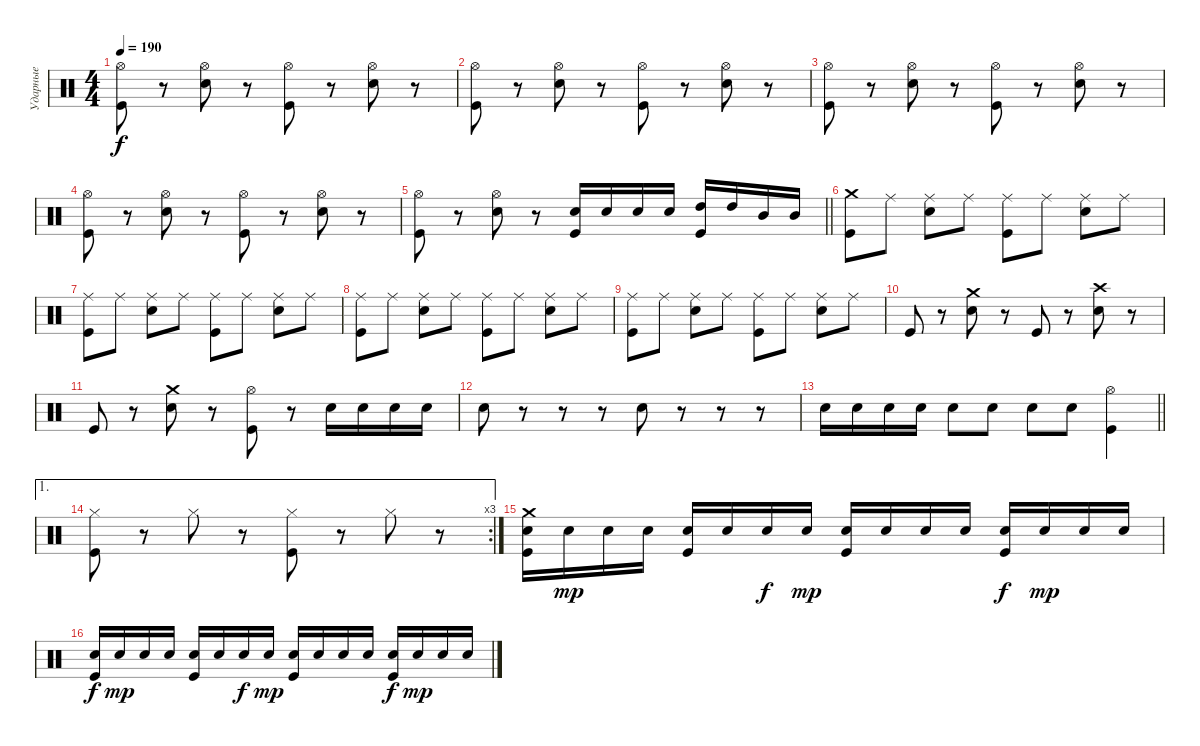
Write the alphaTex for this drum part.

\track ("Ударные" "Ударные") {instrument percussion}
\staff {score}
\articulation defaults
\ts (4 4)
\tempo 190
\clef neutral
\ks c
("Hi-Hat (open)" "Kick (hit)").8{dy f} r.8 ("Hi-Hat (open)" "Electric Snare (hit)").8 r.8 ("Hi-Hat (open)" "Kick (hit)").8 r.8 ("Hi-Hat (open)" "Electric Snare (hit)").8 r.8 |
("Hi-Hat (open)" "Kick (hit)").8 r.8 ("Hi-Hat (open)" "Electric Snare (hit)").8 r.8 ("Hi-Hat (open)" "Kick (hit)").8 r.8 ("Hi-Hat (open)" "Electric Snare (hit)").8 r.8 |
("Hi-Hat (open)" "Kick (hit)").8 r.8 ("Hi-Hat (open)" "Electric Snare (hit)").8 r.8 ("Hi-Hat (open)" "Kick (hit)").8 r.8 ("Hi-Hat (open)" "Electric Snare (hit)").8 r.8 |
("Hi-Hat (open)" "Kick (hit)").8 r.8 ("Hi-Hat (open)" "Electric Snare (hit)").8 r.8 ("Hi-Hat (open)" "Kick (hit)").8 r.8 ("Hi-Hat (open)" "Electric Snare (hit)").8 r.8 |
\barLineRight lightlight
("Hi-Hat (open)" "Kick (hit)").8 r.8 ("Hi-Hat (open)" "Electric Snare (hit)").8 r.8 ("Electric Snare (hit)" "Kick (hit)").16 "Electric Snare (hit)".16 "Electric Snare (hit)".16 "Electric Snare (hit)".16 ("High Tom (hit)" "Kick (hit)").16 "High Tom (hit)".16 "Mid Tom (hit)".16 "Mid Tom (hit)".16 |
("Crash medium (hit)" "Kick (hit)").8 "Ride (middle)".8 ("Ride (middle)" "Electric Snare (hit)").8 "Ride (middle)".8 ("Ride (middle)" "Kick (hit)").8 "Ride (middle)".8 ("Ride (middle)" "Electric Snare (hit)").8 "Ride (middle)".8 |
("Ride (middle)" "Kick (hit)").8 "Ride (middle)".8 ("Ride (middle)" "Electric Snare (hit)").8 "Ride (middle)".8 ("Ride (middle)" "Kick (hit)").8 "Ride (middle)".8 ("Ride (middle)" "Electric Snare (hit)").8 "Ride (middle)".8 |
("Ride (middle)" "Kick (hit)").8 "Ride (middle)".8 ("Ride (middle)" "Electric Snare (hit)").8 "Ride (middle)".8 ("Ride (middle)" "Kick (hit)").8 "Ride (middle)".8 ("Ride (middle)" "Electric Snare (hit)").8 "Ride (middle)".8 |
("Ride (middle)" "Kick (hit)").8 "Ride (middle)".8 ("Ride (middle)" "Electric Snare (hit)").8 "Ride (middle)".8 ("Ride (middle)" "Kick (hit)").8 "Ride (middle)".8 ("Ride (middle)" "Electric Snare (hit)").8 "Ride (middle)".8 |
"Kick (hit)".8 r.8 ("Crash medium (hit)" "Electric Snare (hit)").8 r.8 "Kick (hit)".8 r.8 ("Crash high (hit)" "Electric Snare (hit)").8 r.8 |
"Kick (hit)".8 r.8 ("Crash medium (hit)" "Electric Snare (hit)").8 r.8 ("Hi-Hat (open)" "Kick (hit)").8 r.8 "Electric Snare (hit)".16 "Electric Snare (hit)".16 "Electric Snare (hit)".16 "Electric Snare (hit)".16 |
"Electric Snare (hit)".8 r.8 r.8 r.8 "Electric Snare (hit)".8 r.8 r.8 r.8 |
\barLineRight lightlight "Electric Snare (hit)".16 "Electric Snare (hit)".16 "Electric Snare (hit)".16 "Electric Snare (hit)".16 "Electric Snare (hit)".8 "Electric Snare (hit)".8 "Electric Snare (hit)".8 "Electric Snare (hit)".8
("Hi-Hat (open)" "Kick (hit)").4 |
\ae 1
\rc 3
("Hi-Hat (closed)" "Kick (hit)").8 r.8 "Hi-Hat (closed)".8 r.8 ("Hi-Hat (closed)" "Kick (hit)").8 r.8 "Hi-Hat (closed)".8 r.8 |
("Crash medium (hit)" "Electric Snare (hit)" "Kick (hit)").16 "Electric Snare (hit)".16{dy mp} "Electric Snare (hit)".16 "Electric Snare (hit)".16 ("Electric Snare (hit)" "Kick (hit)").16 "Electric Snare (hit)".16 "Electric Snare (hit)".16{dy f} "Electric Snare (hit)".16{dy mp} ("Electric Snare (hit)" "Kick (hit)").16 "Electric Snare (hit)".16 "Electric Snare (hit)".16 "Electric Snare (hit)".16 ("Electric Snare (hit)" "Kick (hit)").16{dy f} "Electric Snare (hit)".16{dy mp} "Electric Snare (hit)".16 "Electric Snare (hit)".16 |
("Electric Snare (hit)" "Kick (hit)").16{dy f} "Electric Snare (hit)".16{dy mp} "Electric Snare (hit)".16 "Electric Snare (hit)".16 ("Electric Snare (hit)" "Kick (hit)").16 "Electric Snare (hit)".16 "Electric Snare (hit)".16{dy f} "Electric Snare (hit)".16{dy mp} ("Electric Snare (hit)" "Kick (hit)").16 "Electric Snare (hit)".16 "Electric Snare (hit)".16 "Electric Snare (hit)".16 ("Electric Snare (hit)" "Kick (hit)").16{dy f} "Electric Snare (hit)".16{dy mp} "Electric Snare (hit)".16 "Electric Snare (hit)".16
